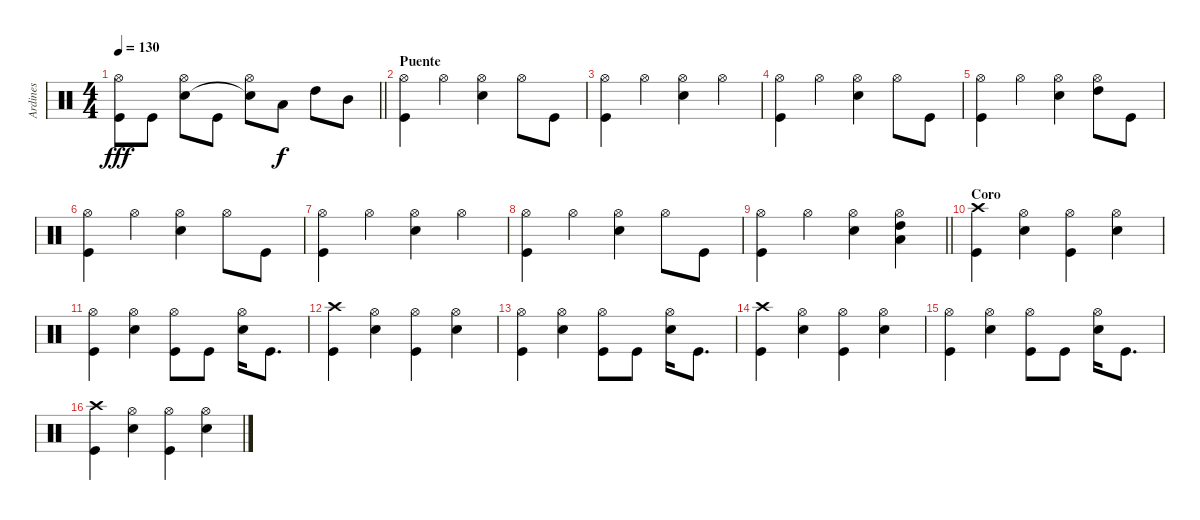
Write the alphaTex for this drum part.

\track ("Ardines" "Ardines") {instrument percussion}
\staff {score}
\articulation defaults
\ts (4 4)
\tempo 130
\clef neutral
\barLineRight lightlight
\ks c
("Hi-Hat (open)" "Kick (hit)").8{dy fff} "Kick (hit)".8 ("Hi-Hat (open)" "Electric Snare (hit)").8 "Kick (hit)".8 ("Hi-Hat (open)" "Snare (hit)"{t}).8 "Low Tom (hit)".8{dy f} "High Tom (hit)".8 "Mid Tom (hit)".8 |
\section ("" "Puente")
("Hi-Hat (open)" "Kick (hit)").4 "Hi-Hat (open)".4 ("Hi-Hat (open)" "Electric Snare (hit)").4 "Hi-Hat (open)".8 "Kick (hit)".8 |
("Hi-Hat (open)" "Kick (hit)").4 "Hi-Hat (open)".4 ("Hi-Hat (open)" "Electric Snare (hit)").4 "Hi-Hat (open)".4 |
("Hi-Hat (open)" "Kick (hit)").4 "Hi-Hat (open)".4 ("Hi-Hat (open)" "Electric Snare (hit)").4 "Hi-Hat (open)".8 "Kick (hit)".8 |
("Hi-Hat (open)" "Kick (hit)").4 "Hi-Hat (open)".4 ("Hi-Hat (open)" "Electric Snare (hit)").4 ("Hi-Hat (open)" "High Tom (hit)").8 "Kick (hit)".8 |
("Hi-Hat (open)" "Kick (hit)").4 "Hi-Hat (open)".4 ("Hi-Hat (open)" "Electric Snare (hit)").4 "Hi-Hat (open)".8 "Kick (hit)".8 |
("Hi-Hat (open)" "Kick (hit)").4 "Hi-Hat (open)".4 ("Hi-Hat (open)" "Electric Snare (hit)").4 "Hi-Hat (open)".4 |
("Hi-Hat (open)" "Kick (hit)").4 "Hi-Hat (open)".4 ("Hi-Hat (open)" "Electric Snare (hit)").4 "Hi-Hat (open)".8 "Kick (hit)".8 |
\barLineRight lightlight
("Hi-Hat (open)" "Kick (hit)").4 "Hi-Hat (open)".4 ("Hi-Hat (open)" "Electric Snare (hit)").4 ("Hi-Hat (open)" "High Tom (hit)" "Low Tom (hit)").4 |
\section ("" "Coro")
("Crash high (hit)" "Kick (hit)").4 ("Hi-Hat (open)" "Electric Snare (hit)").4 ("Hi-Hat (open)" "Kick (hit)").4 ("Hi-Hat (open)" "Electric Snare (hit)").4 |
("Hi-Hat (open)" "Kick (hit)").4 ("Hi-Hat (open)" "Electric Snare (hit)").4 ("Hi-Hat (open)" "Kick (hit)").8 "Kick (hit)".8 ("Hi-Hat (open)" "Electric Snare (hit)").16 "Kick (hit)".8{d} |
("Crash high (hit)" "Kick (hit)").4 ("Hi-Hat (open)" "Electric Snare (hit)").4 ("Hi-Hat (open)" "Kick (hit)").4 ("Hi-Hat (open)" "Electric Snare (hit)").4 |
("Hi-Hat (open)" "Kick (hit)").4 ("Hi-Hat (open)" "Electric Snare (hit)").4 ("Hi-Hat (open)" "Kick (hit)").8 "Kick (hit)".8 ("Hi-Hat (open)" "Electric Snare (hit)").16 "Kick (hit)".8{d} |
("Crash high (hit)" "Kick (hit)").4 ("Hi-Hat (open)" "Electric Snare (hit)").4 ("Hi-Hat (open)" "Kick (hit)").4 ("Hi-Hat (open)" "Electric Snare (hit)").4 |
("Hi-Hat (open)" "Kick (hit)").4 ("Hi-Hat (open)" "Electric Snare (hit)").4 ("Hi-Hat (open)" "Kick (hit)").8 "Kick (hit)".8 ("Hi-Hat (open)" "Electric Snare (hit)").16 "Kick (hit)".8{d} |
("Crash high (hit)" "Kick (hit)").4 ("Hi-Hat (open)" "Electric Snare (hit)").4 ("Hi-Hat (open)" "Kick (hit)").4 ("Hi-Hat (open)" "Electric Snare (hit)").4
